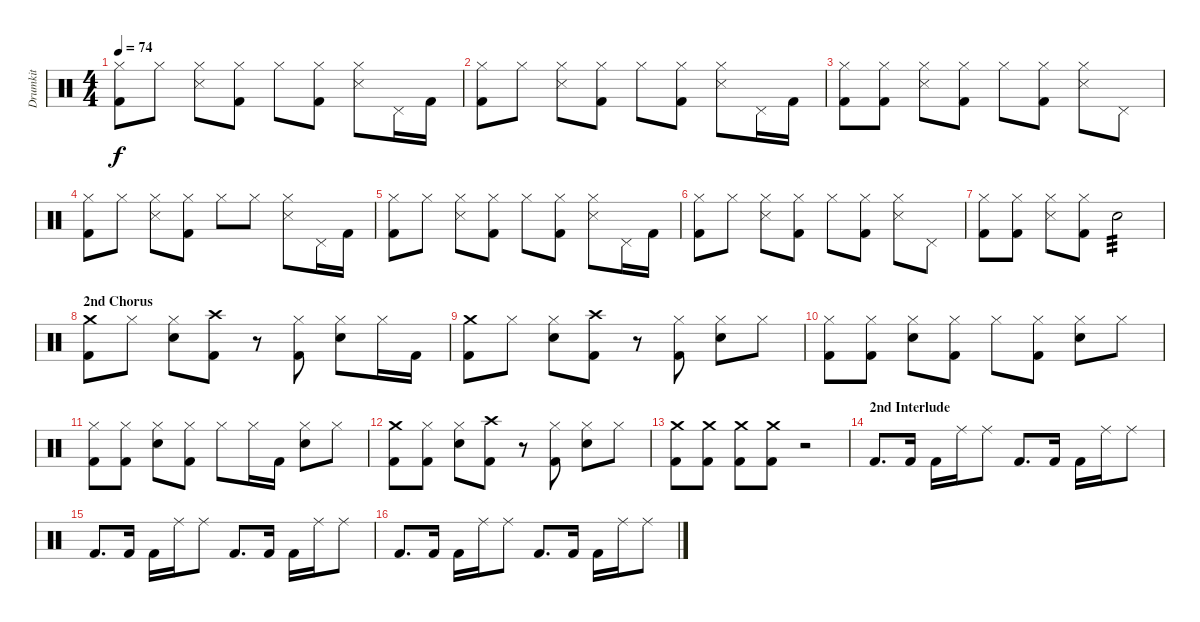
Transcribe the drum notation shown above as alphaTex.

\track ("Drumkit" "Drumkit") {instrument percussion}
\staff {score}
\articulation defaults
\ts (4 4)
\tempo 74
\clef neutral
\ks c
("Hi-Hat (closed)" "Kick (hit) 2").8{dy f} "Hi-Hat (closed)".8 ("Hi-Hat (closed)" "Snare (side stick) 3").8 ("Hi-Hat (closed)" "Kick (hit) 2").8 "Hi-Hat (closed)".8 ("Hi-Hat (closed)" "Kick (hit) 2").8 ("Hi-Hat (closed)" "Snare (side stick) 3").8 "Pedal Hi-Hat (hit)".16 "Kick (hit) 2".16 |
("Hi-Hat (closed)" "Kick (hit) 2").8 "Hi-Hat (closed)".8 ("Hi-Hat (closed)" "Snare (side stick) 3").8 ("Hi-Hat (closed)" "Kick (hit) 2").8 "Hi-Hat (closed)".8 ("Hi-Hat (closed)" "Kick (hit) 2").8 ("Hi-Hat (closed)" "Snare (side stick) 3").8 "Pedal Hi-Hat (hit)".16 "Kick (hit) 2".16 |
("Hi-Hat (closed)" "Kick (hit) 2").8 ("Hi-Hat (closed)" "Kick (hit) 2").8 ("Hi-Hat (closed)" "Snare (side stick) 3").8 ("Hi-Hat (closed)" "Kick (hit) 2").8 "Hi-Hat (closed)".8 ("Hi-Hat (closed)" "Kick (hit) 2").8 ("Hi-Hat (closed)" "Snare (side stick) 3").8 "Pedal Hi-Hat (hit)".8 |
("Hi-Hat (closed)" "Kick (hit) 2").8 "Hi-Hat (closed)".8 ("Hi-Hat (closed)" "Snare (side stick) 3").8 ("Hi-Hat (closed)" "Kick (hit) 2").8 "Hi-Hat (closed)".8 "Hi-Hat (closed)".8 ("Hi-Hat (closed)" "Snare (side stick) 3").8 "Pedal Hi-Hat (hit)".16 "Kick (hit) 2".16 |
("Hi-Hat (closed)" "Kick (hit) 2").8 "Hi-Hat (closed)".8 ("Hi-Hat (closed)" "Snare (side stick) 3").8 ("Hi-Hat (closed)" "Kick (hit) 2").8 "Hi-Hat (closed)".8 ("Hi-Hat (closed)" "Kick (hit) 2").8 ("Hi-Hat (closed)" "Snare (side stick) 3").8 "Pedal Hi-Hat (hit)".16 "Kick (hit) 2".16 |
("Hi-Hat (closed)" "Kick (hit) 2").8 "Hi-Hat (closed)".8 ("Hi-Hat (closed)" "Snare (side stick) 3").8 ("Hi-Hat (closed)" "Kick (hit) 2").8 "Hi-Hat (closed)".8 ("Hi-Hat (closed)" "Kick (hit) 2").8 ("Hi-Hat (closed)" "Snare (side stick) 3").8 "Pedal Hi-Hat (hit)".8 |
("Hi-Hat (closed)" "Kick (hit) 2").8 ("Hi-Hat (closed)" "Kick (hit) 2").8 ("Hi-Hat (closed)" "Snare (side stick) 3").8 ("Hi-Hat (closed)" "Kick (hit) 2").8 "Snare (hit) 2".2{tp 3} |
\section ("" "2nd Chorus")
("Crash medium (hit)" "Kick (hit) 2").8 "Hi-Hat (closed)".8 ("Hi-Hat (closed)" "Snare (hit) 2").8 ("Crash high (hit)" "Kick (hit) 2").8 r.8 ("Hi-Hat (closed)" "Kick (hit) 2").8 ("Hi-Hat (closed)" "Snare (hit) 2").8 "Hi-Hat (closed)".16 "Kick (hit) 2".16 |
("Crash medium (hit)" "Kick (hit) 2").8 "Hi-Hat (closed)".8 ("Hi-Hat (closed)" "Snare (hit) 2").8 ("Crash high (hit)" "Kick (hit) 2").8 r.8 ("Hi-Hat (closed)" "Kick (hit) 2").8 ("Hi-Hat (closed)" "Snare (hit) 2").8 "Hi-Hat (closed)".8 |
("Hi-Hat (closed)" "Kick (hit) 2").8 ("Hi-Hat (closed)" "Kick (hit) 2").8 ("Hi-Hat (closed)" "Snare (hit) 2").8 ("Hi-Hat (closed)" "Kick (hit) 2").8 "Hi-Hat (closed)".8 ("Hi-Hat (closed)" "Kick (hit) 2").8 ("Hi-Hat (closed)" "Snare (hit) 2").8 "Hi-Hat (closed)".8 |
("Hi-Hat (closed)" "Kick (hit) 2").8 ("Hi-Hat (closed)" "Kick (hit) 2").8 ("Hi-Hat (closed)" "Snare (hit) 2").8 ("Hi-Hat (closed)" "Kick (hit) 2").8 "Hi-Hat (closed)".8 "Hi-Hat (closed)".16 "Kick (hit) 2".16 ("Hi-Hat (closed)" "Snare (hit) 2").8 "Hi-Hat (closed)".8 |
("Crash medium (hit)" "Kick (hit) 2").8 ("Hi-Hat (closed)" "Kick (hit) 2").8 ("Hi-Hat (closed)" "Snare (hit) 2").8 ("Crash high (hit)" "Kick (hit) 2").8 r.8 ("Hi-Hat (closed)" "Kick (hit) 2").8 ("Hi-Hat (closed)" "Snare (hit) 2").8 "Hi-Hat (closed)".8 |
("Crash medium (hit)" "Kick (hit) 2").8 ("Crash medium (hit)" "Kick (hit) 2").8 ("Crash medium (hit)" "Kick (hit) 2").8 ("Crash medium (hit)" "Kick (hit) 2").8 r.2 |
\section ("" "2nd Interlude")
"Kick (hit) 2".8{d} "Kick (hit) 2".16 "Kick (hit) 2".16 "Ride (middle)".16 "Ride (middle)".8 "Kick (hit) 2".8{d} "Kick (hit) 2".16 "Kick (hit) 2".16 "Ride (middle)".16 "Ride (middle)".8 |
"Kick (hit) 2".8{d} "Kick (hit) 2".16 "Kick (hit) 2".16 "Ride (middle)".16 "Ride (middle)".8 "Kick (hit) 2".8{d} "Kick (hit) 2".16 "Kick (hit) 2".16 "Ride (middle)".16 "Ride (middle)".8 |
"Kick (hit) 2".8{d} "Kick (hit) 2".16 "Kick (hit) 2".16 "Ride (middle)".16 "Ride (middle)".8 "Kick (hit) 2".8{d} "Kick (hit) 2".16 "Kick (hit) 2".16 "Ride (middle)".16 "Ride (middle)".8
